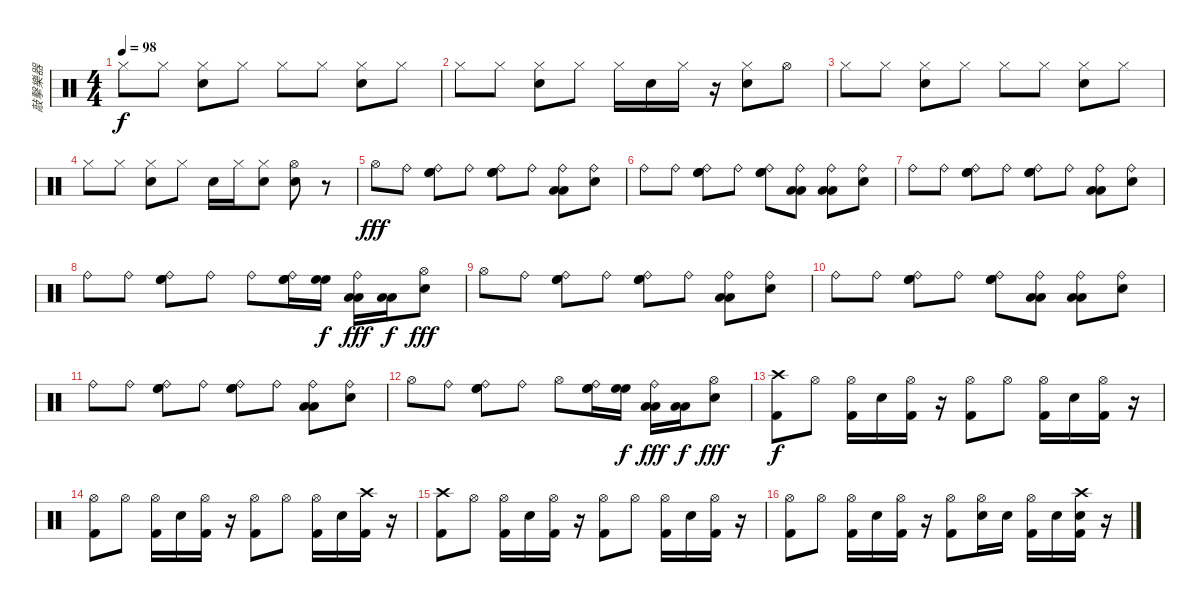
\track ("敲擊樂器" "敲擊樂器") {instrument percussion}
\staff {score}
\articulation defaults
\ts (4 4)
\tempo 98
\clef neutral
\ks c "Hi-Hat (closed)".8{dy f} "Hi-Hat (closed)".8
("Hi-Hat (closed)" "Snare (hit) 2").8 "Hi-Hat (closed)".8 "Hi-Hat (closed)".8 "Hi-Hat (closed)".8 ("Hi-Hat (closed)" "Snare (hit) 2").8 "Hi-Hat (closed)".8 |
"Hi-Hat (closed)".8 "Hi-Hat (closed)".8 ("Hi-Hat (closed)" "Snare (hit) 2").8 "Hi-Hat (closed)".8 "Hi-Hat (closed)".16 "Snare (hit) 2".16 "Hi-Hat (closed)".16 r.16 ("Hi-Hat (closed)" "Snare (hit) 2").8 "Hi-Hat (open)".8 |
"Hi-Hat (closed)".8 "Hi-Hat (closed)".8 ("Hi-Hat (closed)" "Snare (hit) 2").8 "Hi-Hat (closed)".8 "Hi-Hat (closed)".8 "Hi-Hat (closed)".8 ("Hi-Hat (closed)" "Snare (hit) 2").8 "Hi-Hat (closed)".8 |
"Hi-Hat (closed)".8 "Hi-Hat (closed)".8 ("Hi-Hat (closed)" "Snare (hit) 2").8 "Hi-Hat (closed)".8 "Snare (hit) 2".16 "Hi-Hat (closed)".16 ("Hi-Hat (closed)" "Snare (hit) 2").8 ("Hi-Hat (open)" "Snare (hit) 2").8 r.8 |
"Hi-Hat (open)".8{dy fff} "Ride (bell)".8 ("Ride (bell)" "High Floor Tom (hit)" "High Floor Tom (hit)").8 "Ride (bell)".8 ("Ride (bell)" "High Floor Tom (hit)" "High Floor Tom (hit)").8 "Ride (bell)".8 ("Ride (bell)" "Low Tom (hit)" "Low Tom (hit)").8 ("Ride (bell)" "Snare (hit) 2").8 |
"Ride (bell)".8 "Ride (bell)".8 ("Ride (bell)" "High Floor Tom (hit)" "High Floor Tom (hit)").8 "Ride (bell)".8 ("Ride (bell)" "High Floor Tom (hit)" "High Floor Tom (hit)").8 ("Ride (bell)" "Low Tom (hit)" "Low Tom (hit)").8 ("Ride (bell)" "Low Tom (hit)" "Low Tom (hit)").8 ("Ride (bell)" "Snare (hit) 2").8 |
"Ride (bell)".8 "Ride (bell)".8 ("Ride (bell)" "High Floor Tom (hit)" "High Floor Tom (hit)").8 "Ride (bell)".8 ("Ride (bell)" "High Floor Tom (hit)" "High Floor Tom (hit)").8 "Ride (bell)".8 ("Ride (bell)" "Low Tom (hit)" "Low Tom (hit)").8 ("Ride (bell)" "Snare (hit) 2").8 |
"Ride (bell)".8 "Ride (bell)".8 ("Ride (bell)" "High Floor Tom (hit)" "High Floor Tom (hit)").8 "Ride (bell)".8 "Ride (bell)".8 ("Ride (bell)" "High Floor Tom (hit)" "High Floor Tom (hit)").16 ("High Floor Tom (hit)" "High Floor Tom (hit)").16{dy f} ("Ride (bell)" "Low Tom (hit)" "Low Tom (hit)").16{dy fff} ("Low Tom (hit)" "Low Tom (hit)").16{dy f} ("Hi-Hat (open)" "Snare (hit) 2").8{dy fff} |
"Hi-Hat (open)".8 "Ride (bell)".8 ("Ride (bell)" "High Floor Tom (hit)" "High Floor Tom (hit)").8 "Ride (bell)".8 ("Ride (bell)" "High Floor Tom (hit)" "High Floor Tom (hit)").8 "Ride (bell)".8 ("Ride (bell)" "Low Tom (hit)" "Low Tom (hit)").8 ("Ride (bell)" "Snare (hit) 2").8 |
"Ride (bell)".8 "Ride (bell)".8 ("Ride (bell)" "High Floor Tom (hit)" "High Floor Tom (hit)").8 "Ride (bell)".8 ("Ride (bell)" "High Floor Tom (hit)" "High Floor Tom (hit)").8 ("Ride (bell)" "Low Tom (hit)" "Low Tom (hit)").8 ("Ride (bell)" "Low Tom (hit)" "Low Tom (hit)").8 ("Ride (bell)" "Snare (hit) 2").8 |
"Ride (bell)".8 "Ride (bell)".8 ("Ride (bell)" "High Floor Tom (hit)" "High Floor Tom (hit)").8 "Ride (bell)".8 ("Ride (bell)" "High Floor Tom (hit)" "High Floor Tom (hit)").8 "Ride (bell)".8 ("Ride (bell)" "Low Tom (hit)" "Low Tom (hit)").8 ("Ride (bell)" "Snare (hit) 2").8 |
"Hi-Hat (open)".8 "Ride (bell)".8 ("Ride (bell)" "High Floor Tom (hit)" "High Floor Tom (hit)").8 "Ride (bell)".8 "Hi-Hat (open)".8 ("Ride (bell)" "High Floor Tom (hit)" "High Floor Tom (hit)").16 ("High Floor Tom (hit)" "High Floor Tom (hit)").16{dy f} ("Ride (bell)" "Low Tom (hit)" "Low Tom (hit)").16{dy fff} ("Low Tom (hit)" "Low Tom (hit)").16{dy f} ("Hi-Hat (open)" "Snare (hit) 2").8{dy fff} |
("Kick (hit) 2" "Crash high (hit)").8{dy f} "Hi-Hat (open)".8 ("Kick (hit) 2" "Hi-Hat (open)").16 "Snare (hit) 2".16 ("Kick (hit) 2" "Hi-Hat (open)").16 r.16 ("Kick (hit) 2" "Hi-Hat (open)").8 "Hi-Hat (open)".8 ("Kick (hit) 2" "Hi-Hat (open)").16 "Snare (hit) 2".16 ("Kick (hit) 2" "Hi-Hat (open)").16 r.16 |
("Kick (hit) 2" "Hi-Hat (open)").8 "Hi-Hat (open)".8 ("Kick (hit) 2" "Hi-Hat (open)").16 "Snare (hit) 2".16 ("Kick (hit) 2" "Hi-Hat (open)").16 r.16 ("Kick (hit) 2" "Hi-Hat (open)").8 "Hi-Hat (open)".8 ("Kick (hit) 2" "Hi-Hat (open)").16 "Snare (hit) 2".16 ("Kick (hit) 2" "Crash high (hit)").16 r.16 |
("Kick (hit) 2" "Crash high (hit)").8 "Hi-Hat (open)".8 ("Kick (hit) 2" "Hi-Hat (open)").16 "Snare (hit) 2".16 ("Kick (hit) 2" "Hi-Hat (open)").16 r.16 ("Kick (hit) 2" "Hi-Hat (open)").8 "Hi-Hat (open)".8 ("Kick (hit) 2" "Hi-Hat (open)").16 "Snare (hit) 2".16 ("Kick (hit) 2" "Hi-Hat (open)").16 r.16 |
("Kick (hit) 2" "Hi-Hat (open)").8 "Hi-Hat (open)".8 ("Kick (hit) 2" "Hi-Hat (open)").16 "Snare (hit) 2".16 ("Kick (hit) 2" "Hi-Hat (open)").16 r.16 ("Kick (hit) 2" "Hi-Hat (open)").8 ("Snare (hit) 2" "Hi-Hat (open)").16 "Snare (hit) 2".16 ("Kick (hit) 2" "Hi-Hat (open)").16 "Snare (hit) 2".16 ("Snare (hit) 2" "Kick (hit) 2" "Crash high (hit)").16 r.16
